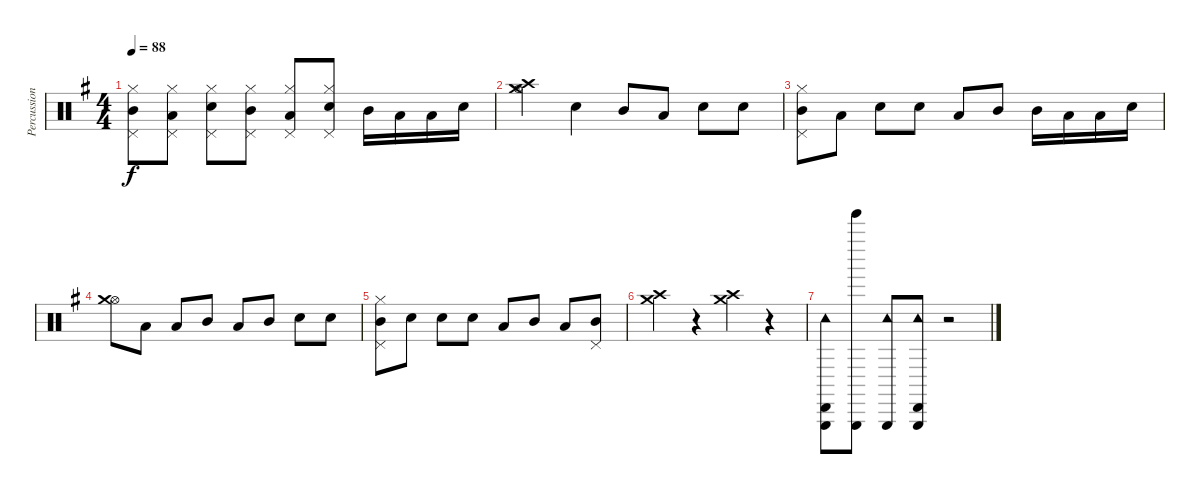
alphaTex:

\track ("Percussion" "Percussion") {instrument percussion}
\staff {score}
\articulation defaults
\ts (4 4)
\tempo 88
\clef neutral
\ks g
("Mid Tom (hit)" "Pedal Hi-Hat (hit)" "Hi-Hat (closed)").8{dy f} ("Low Tom (hit)" "Pedal Hi-Hat (hit)" "Hi-Hat (closed)").8 ("Electric Snare (hit)" "Pedal Hi-Hat (hit)" "Hi-Hat (closed)").8 ("Mid Tom (hit)" "Pedal Hi-Hat (hit)" "Hi-Hat (closed)").8 ("Low Tom (hit)" "Pedal Hi-Hat (hit)" "Hi-Hat (closed)").8 ("Electric Snare (hit)" "Pedal Hi-Hat (hit)" "Hi-Hat (closed)").8 "Mid Tom (hit)".16 "Low Tom (hit)".16 "Low Tom (hit)".16 "Electric Snare (hit)".16 |
("Hi-Hat (open)" "Crash medium (hit)" "Crash high (hit)").4 "Electric Snare (hit)".4 "Mid Tom (hit)".8 "Low Tom (hit)".8 "Electric Snare (hit)".8 "Electric Snare (hit)".8 |
("Mid Tom (hit)" "Pedal Hi-Hat (hit)" "Hi-Hat (closed)").8 "Low Tom (hit)".8 "Electric Snare (hit)".8 "Electric Snare (hit)".8 "Low Tom (hit)".8 "Mid Tom (hit)".8 "Mid Tom (hit)".16 "Low Tom (hit)".16 "Low Tom (hit)".16 "Electric Snare (hit)".16 |
("Hi-Hat (open)" "Crash medium (hit)").8 "Low Tom (hit)".8 "Low Tom (hit)".8 "Mid Tom (hit)".8 "Low Tom (hit)".8 "Mid Tom (hit)".8 "Electric Snare (hit)".8 "Electric Snare (hit)".8 |
("Mid Tom (hit)" "Pedal Hi-Hat (hit)" "Hi-Hat (closed)").8 "Electric Snare (hit)".8 "Electric Snare (hit)".8 "Electric Snare (hit)".8 "Low Tom (hit)".8 "Mid Tom (hit)".8 "Low Tom (hit)".8 ("Mid Tom (hit)" "Pedal Hi-Hat (hit)").8 |
("Crash high (hit)" "Crash medium (hit)").4 r.4 ("Crash high (hit)" "Crash medium (hit)").4 r.4 |
("Cabasa (hit)" "Triangle (hit)" "Tambourine (hit)").8 ("Tinkle Bell (hit)" "Triangle (hit)").8 ("Tambourine (hit)" "Triangle (hit)").8 ("Cabasa (hit)" "Triangle (hit)" "Tambourine (hit)").8 r.2
